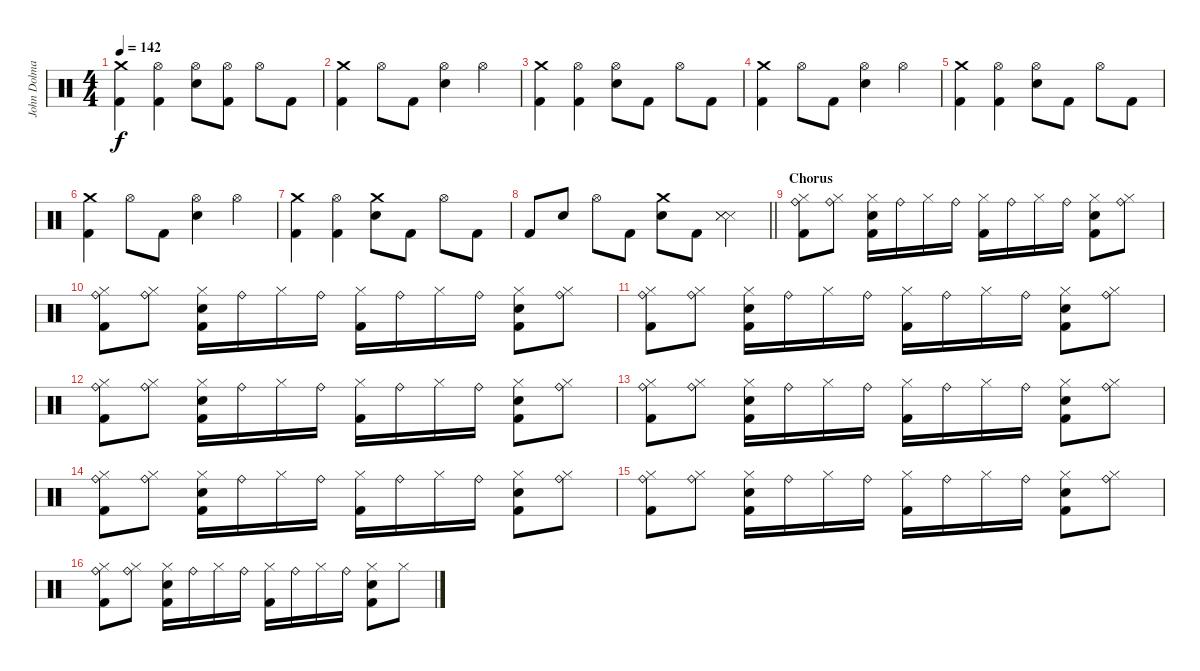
\track ("John Dolmayan" "John Dolma") {instrument percussion}
\staff {score}
\articulation defaults
\ts (4 4)
\tempo 142
\clef neutral
\ks c
("Crash medium (hit)" "Kick (hit) 2").4{dy f} ("Hi-Hat (open)" "Kick (hit) 2").4 ("Hi-Hat (open)" "Electric Snare (hit)").8 ("Hi-Hat (open)" "Kick (hit) 2").8 "Hi-Hat (open)".8 "Kick (hit) 2".8 |
("Crash medium (hit)" "Kick (hit) 2").4 "Hi-Hat (open)".8 "Kick (hit) 2".8 ("Hi-Hat (open)" "Electric Snare (hit)").4 "Hi-Hat (open)".4 |
("Crash medium (hit)" "Kick (hit) 2").4 ("Hi-Hat (open)" "Kick (hit) 2").4 ("Hi-Hat (open)" "Electric Snare (hit)").8 "Kick (hit) 2".8 "Hi-Hat (open)".8 "Kick (hit) 2".8 |
("Crash medium (hit)" "Kick (hit) 2").4 "Hi-Hat (open)".8 "Kick (hit) 2".8 ("Hi-Hat (open)" "Electric Snare (hit)").4 "Hi-Hat (open)".4 |
("Crash medium (hit)" "Kick (hit) 2").4 ("Hi-Hat (open)" "Kick (hit) 2").4 ("Hi-Hat (open)" "Electric Snare (hit)").8 "Kick (hit) 2".8 "Hi-Hat (open)".8 "Kick (hit) 2".8 |
("Crash medium (hit)" "Kick (hit) 2").4 "Hi-Hat (open)".8 "Kick (hit) 2".8 ("Hi-Hat (open)" "Electric Snare (hit)").4 "Hi-Hat (open)".4 |
("Crash medium (hit)" "Kick (hit) 2").4 ("Hi-Hat (open)" "Kick (hit) 2").4 ("Crash medium (hit)" "Electric Snare (hit)").8 "Kick (hit) 2".8 "Hi-Hat (open)".8 "Kick (hit) 2".8 |
\barLineRight lightlight "Kick (hit) 2".8 "Electric Snare (hit)".8 "Hi-Hat (open)".8 "Kick (hit) 2".8
("Crash medium (hit)" "Electric Snare (hit)").8 "Kick (hit) 2".8 ("Snare (side stick) 3" "Snare (side stick) 3" "Snare (side stick) 3").4 |
\section ("" "Chorus")
("Ride (bell)" "Hi-Hat (closed)" "Kick (hit) 2").8 ("Ride (bell)" "Hi-Hat (closed)").8 ("Hi-Hat (closed)" "Electric Snare (hit)" "Kick (hit) 2").16 "Ride (bell)".16 "Hi-Hat (closed)".16 "Ride (bell)".16 ("Hi-Hat (closed)" "Kick (hit) 2").16 "Ride (bell)".16 "Hi-Hat (closed)".16 "Ride (bell)".16 ("Hi-Hat (closed)" "Electric Snare (hit)" "Kick (hit) 2").8 ("Ride (bell)" "Hi-Hat (closed)").8 |
("Ride (bell)" "Hi-Hat (closed)" "Kick (hit) 2").8 ("Ride (bell)" "Hi-Hat (closed)").8 ("Hi-Hat (closed)" "Electric Snare (hit)" "Kick (hit) 2").16 "Ride (bell)".16 "Hi-Hat (closed)".16 "Ride (bell)".16 ("Hi-Hat (closed)" "Kick (hit) 2").16 "Ride (bell)".16 "Hi-Hat (closed)".16 "Ride (bell)".16 ("Hi-Hat (closed)" "Electric Snare (hit)" "Kick (hit) 2").8 ("Ride (bell)" "Hi-Hat (closed)").8 |
("Ride (bell)" "Hi-Hat (closed)" "Kick (hit) 2").8 ("Ride (bell)" "Hi-Hat (closed)").8 ("Hi-Hat (closed)" "Electric Snare (hit)" "Kick (hit) 2").16 "Ride (bell)".16 "Hi-Hat (closed)".16 "Ride (bell)".16 ("Hi-Hat (closed)" "Kick (hit) 2").16 "Ride (bell)".16 "Hi-Hat (closed)".16 "Ride (bell)".16 ("Hi-Hat (closed)" "Electric Snare (hit)" "Kick (hit) 2").8 ("Ride (bell)" "Hi-Hat (closed)").8 |
("Ride (bell)" "Hi-Hat (closed)" "Kick (hit) 2").8 ("Ride (bell)" "Hi-Hat (closed)").8 ("Hi-Hat (closed)" "Electric Snare (hit)" "Kick (hit) 2").16 "Ride (bell)".16 "Hi-Hat (closed)".16 "Ride (bell)".16 ("Hi-Hat (closed)" "Kick (hit) 2").16 "Ride (bell)".16 "Hi-Hat (closed)".16 "Ride (bell)".16 ("Hi-Hat (closed)" "Electric Snare (hit)" "Kick (hit) 2").8 ("Ride (bell)" "Hi-Hat (closed)").8 |
("Ride (bell)" "Hi-Hat (closed)" "Kick (hit) 2").8 ("Ride (bell)" "Hi-Hat (closed)").8 ("Hi-Hat (closed)" "Electric Snare (hit)" "Kick (hit) 2").16 "Ride (bell)".16 "Hi-Hat (closed)".16 "Ride (bell)".16 ("Hi-Hat (closed)" "Kick (hit) 2").16 "Ride (bell)".16 "Hi-Hat (closed)".16 "Ride (bell)".16 ("Hi-Hat (closed)" "Electric Snare (hit)" "Kick (hit) 2").8 ("Ride (bell)" "Hi-Hat (closed)").8 |
("Ride (bell)" "Hi-Hat (closed)" "Kick (hit) 2").8 ("Ride (bell)" "Hi-Hat (closed)").8 ("Hi-Hat (closed)" "Electric Snare (hit)" "Kick (hit) 2").16 "Ride (bell)".16 "Hi-Hat (closed)".16 "Ride (bell)".16 ("Hi-Hat (closed)" "Kick (hit) 2").16 "Ride (bell)".16 "Hi-Hat (closed)".16 "Ride (bell)".16 ("Hi-Hat (closed)" "Electric Snare (hit)" "Kick (hit) 2").8 ("Ride (bell)" "Hi-Hat (closed)").8 |
("Ride (bell)" "Hi-Hat (closed)" "Kick (hit) 2").8 ("Ride (bell)" "Hi-Hat (closed)").8 ("Hi-Hat (closed)" "Electric Snare (hit)" "Kick (hit) 2").16 "Ride (bell)".16 "Hi-Hat (closed)".16 "Ride (bell)".16 ("Hi-Hat (closed)" "Kick (hit) 2").16 "Ride (bell)".16 "Hi-Hat (closed)".16 "Ride (bell)".16 ("Hi-Hat (closed)" "Electric Snare (hit)" "Kick (hit) 2").8 ("Ride (bell)" "Hi-Hat (closed)").8 |
("Ride (bell)" "Hi-Hat (closed)" "Kick (hit) 2").8 ("Ride (bell)" "Hi-Hat (closed)").8 ("Hi-Hat (closed)" "Electric Snare (hit)" "Kick (hit) 2").16 "Ride (bell)".16 "Hi-Hat (closed)".16 "Ride (bell)".16 ("Hi-Hat (closed)" "Kick (hit) 2").16 "Ride (bell)".16 "Hi-Hat (closed)".16 "Ride (bell)".16 ("Hi-Hat (closed)" "Electric Snare (hit)" "Kick (hit) 2").8 "Hi-Hat (closed)".8
